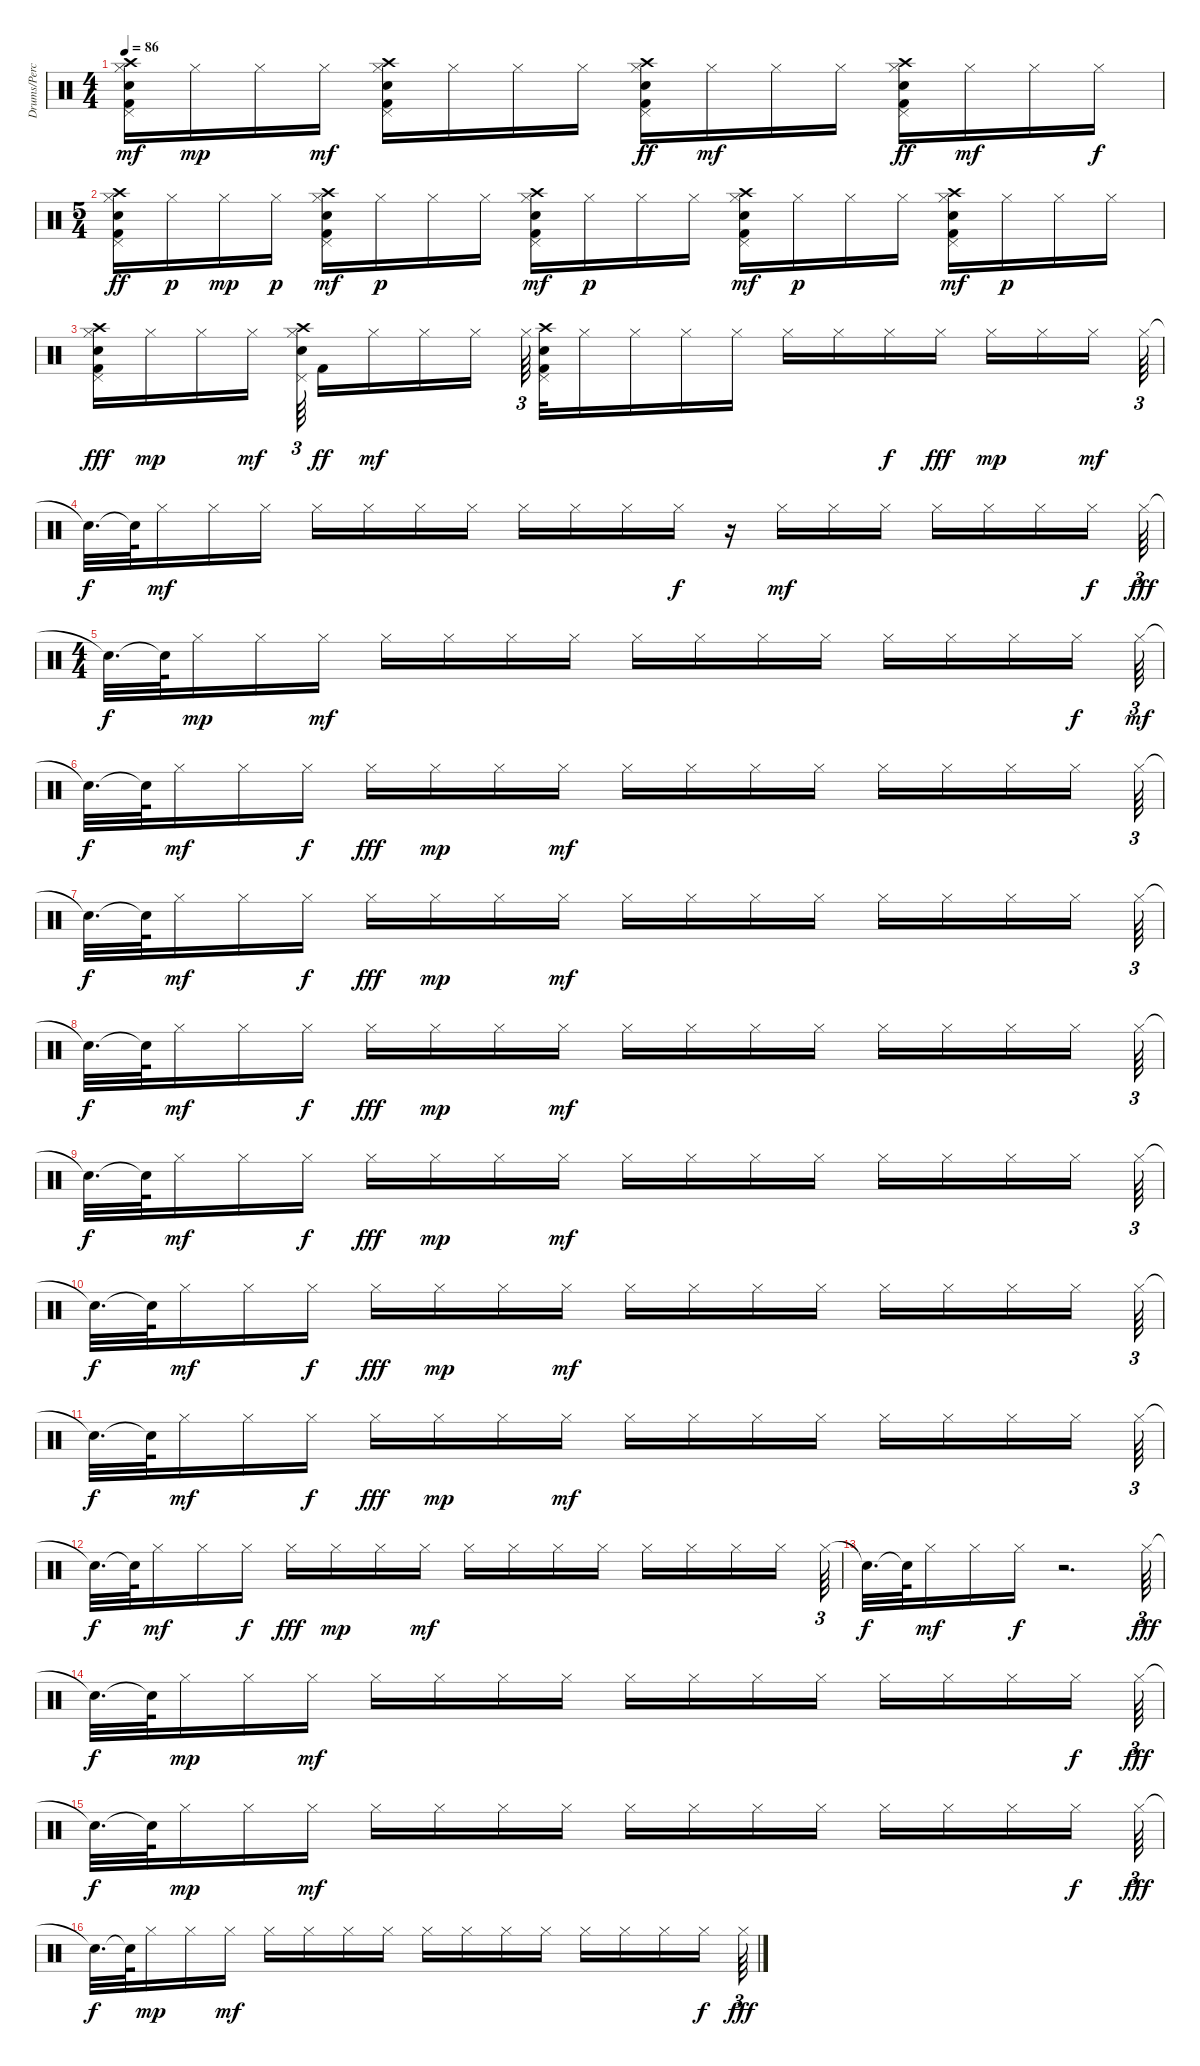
\track ("Drums/Percussion" "Drums/Perc") {instrument percussion}
\staff {score}
\articulation defaults
\ts (4 4)
\tempo 86
\clef neutral
\ks c
("Hi-Hat (closed)" "Crash high (hit)" "Pedal Hi-Hat (hit)" "Kick (hit) 2" "Electric Snare (hit)").16{dy mf} "Hi-Hat (closed)".16{dy mp} "Hi-Hat (closed)".16 "Hi-Hat (closed)".16{dy mf} ("Hi-Hat (closed)" "Pedal Hi-Hat (hit)" "Crash high (hit)" "Kick (hit) 2" "Electric Snare (hit)").16 "Hi-Hat (closed)".16 "Hi-Hat (closed)".16 "Hi-Hat (closed)".16 ("Hi-Hat (closed)" "Kick (hit) 2" "Electric Snare (hit)" "Crash high (hit)" "Pedal Hi-Hat (hit)").16{dy ff} "Hi-Hat (closed)".16{dy mf} "Hi-Hat (closed)".16 "Hi-Hat (closed)".16 ("Hi-Hat (closed)" "Electric Snare (hit)" "Kick (hit) 2" "Pedal Hi-Hat (hit)" "Crash high (hit)").16{dy ff} "Hi-Hat (closed)".16{dy mf} "Hi-Hat (closed)".16 "Hi-Hat (closed)".16{dy f} |
\ts (5 4)
("Hi-Hat (closed)" "Kick (hit) 2" "Electric Snare (hit)" "Crash high (hit)" "Pedal Hi-Hat (hit)").16{dy ff} "Hi-Hat (closed)".16{dy p} "Hi-Hat (closed)".16{dy mp} "Hi-Hat (closed)".16{dy p} ("Hi-Hat (closed)" "Pedal Hi-Hat (hit)" "Crash high (hit)" "Kick (hit) 2" "Electric Snare (hit)").16{dy mf} "Hi-Hat (closed)".16{dy p} "Hi-Hat (closed)".16 "Hi-Hat (closed)".16 ("Hi-Hat (closed)" "Pedal Hi-Hat (hit)" "Crash high (hit)" "Electric Snare (hit)" "Kick (hit) 2").16{dy mf} "Hi-Hat (closed)".16{dy p} "Hi-Hat (closed)".16 "Hi-Hat (closed)".16 ("Hi-Hat (closed)" "Crash high (hit)" "Pedal Hi-Hat (hit)" "Kick (hit) 2" "Electric Snare (hit)").16{dy mf} "Hi-Hat (closed)".16{dy p} "Hi-Hat (closed)".16 "Hi-Hat (closed)".16 ("Hi-Hat (closed)" "Pedal Hi-Hat (hit)" "Crash high (hit)" "Kick (hit) 2" "Electric Snare (hit)").16{dy mf} "Hi-Hat (closed)".16{dy p} "Hi-Hat (closed)".16 "Hi-Hat (closed)".16 |
("Hi-Hat (closed)" "Pedal Hi-Hat (hit)" "Crash high (hit)" "Kick (hit) 2" "Electric Snare (hit)").16{dy fff} "Hi-Hat (closed)".16{dy mp} "Hi-Hat (closed)".16 "Hi-Hat (closed)".16{dy mf} ("Hi-Hat (closed)" "Pedal Hi-Hat (hit)" "Crash high (hit)" "Electric Snare (hit)").64{tu (3 2) beam splitsecondary} "Kick (hit) 2".16{dy ff} "Hi-Hat (closed)".16{dy mf} "Hi-Hat (closed)".16 "Hi-Hat (closed)".16 "Hi-Hat (closed)".64{tu (3 2) beam splitsecondary} ("Crash high (hit)" "Pedal Hi-Hat (hit)" "Kick (hit) 2" "Electric Snare (hit)").32 "Hi-Hat (closed)".16{volume 10} "Hi-Hat (closed)".16 "Hi-Hat (closed)".16 "Hi-Hat (closed)".16{volume 9} "Hi-Hat (closed)".16{volume 8} "Hi-Hat (closed)".16{volume 8} "Hi-Hat (closed)".16{dy f volume 8} "Hi-Hat (closed)".16{dy fff volume 8} "Hi-Hat (closed)".16{dy mp volume 7} "Hi-Hat (closed)".16{volume 7} "Hi-Hat (closed)".16{dy mf volume 7 beam splitsecondary} "Hi-Hat (closed)".64{tu (3 2)} |
"Snare (hit)"{t}.32{d dy f} "Snare (hit)"{t}.64 "Hi-Hat (closed)".16{dy mf} "Hi-Hat (closed)".16 "Hi-Hat (closed)".16 "Hi-Hat (closed)".16 "Hi-Hat (closed)".16 "Hi-Hat (closed)".16 "Hi-Hat (closed)".16 "Hi-Hat (closed)".16 "Hi-Hat (closed)".16 "Hi-Hat (closed)".16 "Hi-Hat (closed)".16{dy f} r.16 "Hi-Hat (closed)".16{dy mf} "Hi-Hat (closed)".16 "Hi-Hat (closed)".16 "Hi-Hat (closed)".16 "Hi-Hat (closed)".16 "Hi-Hat (closed)".16 "Hi-Hat (closed)".16{dy f} "Hi-Hat (closed)".64{tu (3 2) dy fff} |
\ts (4 4)
"Snare (hit)"{t}.32{d dy f} "Snare (hit)"{t}.64 "Hi-Hat (closed)".16{dy mp} "Hi-Hat (closed)".16 "Hi-Hat (closed)".16{dy mf} "Hi-Hat (closed)".16 "Hi-Hat (closed)".16 "Hi-Hat (closed)".16 "Hi-Hat (closed)".16 "Hi-Hat (closed)".16 "Hi-Hat (closed)".16 "Hi-Hat (closed)".16 "Hi-Hat (closed)".16 "Hi-Hat (closed)".16 "Hi-Hat (closed)".16 "Hi-Hat (closed)".16 "Hi-Hat (closed)".16{dy f} "Hi-Hat (closed)".64{tu (3 2) dy mf} |
"Snare (hit)"{t}.32{d dy f} "Snare (hit)"{t}.64 "Hi-Hat (closed)".16{dy mf} "Hi-Hat (closed)".16 "Hi-Hat (closed)".16{dy f} "Hi-Hat (closed)".16{dy fff} "Hi-Hat (closed)".16{dy mp} "Hi-Hat (closed)".16 "Hi-Hat (closed)".16{dy mf} "Hi-Hat (closed)".16 "Hi-Hat (closed)".16 "Hi-Hat (closed)".16 "Hi-Hat (closed)".16 "Hi-Hat (closed)".16 "Hi-Hat (closed)".16 "Hi-Hat (closed)".16 "Hi-Hat (closed)".16 "Hi-Hat (closed)".64{tu (3 2)} |
"Snare (hit)"{t}.32{d dy f} "Snare (hit)"{t}.64 "Hi-Hat (closed)".16{dy mf} "Hi-Hat (closed)".16 "Hi-Hat (closed)".16{dy f} "Hi-Hat (closed)".16{dy fff} "Hi-Hat (closed)".16{dy mp} "Hi-Hat (closed)".16 "Hi-Hat (closed)".16{dy mf} "Hi-Hat (closed)".16 "Hi-Hat (closed)".16 "Hi-Hat (closed)".16 "Hi-Hat (closed)".16 "Hi-Hat (closed)".16 "Hi-Hat (closed)".16{volume 8} "Hi-Hat (closed)".16{volume 8} "Hi-Hat (closed)".16 "Hi-Hat (closed)".64{tu (3 2)} |
"Snare (hit)"{t}.32{d dy f} "Snare (hit)"{t}.64 "Hi-Hat (closed)".16{dy mf} "Hi-Hat (closed)".16 "Hi-Hat (closed)".16{dy f} "Hi-Hat (closed)".16{dy fff} "Hi-Hat (closed)".16{dy mp} "Hi-Hat (closed)".16 "Hi-Hat (closed)".16{dy mf} "Hi-Hat (closed)".16 "Hi-Hat (closed)".16 "Hi-Hat (closed)".16 "Hi-Hat (closed)".16 "Hi-Hat (closed)".16 "Hi-Hat (closed)".16 "Hi-Hat (closed)".16 "Hi-Hat (closed)".16 "Hi-Hat (closed)".64{tu (3 2)} |
"Snare (hit)"{t}.32{d dy f} "Snare (hit)"{t}.64 "Hi-Hat (closed)".16{dy mf} "Hi-Hat (closed)".16 "Hi-Hat (closed)".16{dy f} "Hi-Hat (closed)".16{dy fff} "Hi-Hat (closed)".16{dy mp} "Hi-Hat (closed)".16 "Hi-Hat (closed)".16{dy mf} "Hi-Hat (closed)".16 "Hi-Hat (closed)".16 "Hi-Hat (closed)".16 "Hi-Hat (closed)".16 "Hi-Hat (closed)".16 "Hi-Hat (closed)".16 "Hi-Hat (closed)".16 "Hi-Hat (closed)".16 "Hi-Hat (closed)".64{tu (3 2)} |
"Snare (hit)"{t}.32{d dy f} "Snare (hit)"{t}.64 "Hi-Hat (closed)".16{dy mf} "Hi-Hat (closed)".16 "Hi-Hat (closed)".16{dy f} "Hi-Hat (closed)".16{dy fff} "Hi-Hat (closed)".16{dy mp} "Hi-Hat (closed)".16 "Hi-Hat (closed)".16{dy mf} "Hi-Hat (closed)".16 "Hi-Hat (closed)".16 "Hi-Hat (closed)".16 "Hi-Hat (closed)".16 "Hi-Hat (closed)".16 "Hi-Hat (closed)".16 "Hi-Hat (closed)".16 "Hi-Hat (closed)".16 "Hi-Hat (closed)".64{tu (3 2)} |
"Snare (hit)"{t}.32{d dy f} "Snare (hit)"{t}.64 "Hi-Hat (closed)".16{dy mf} "Hi-Hat (closed)".16 "Hi-Hat (closed)".16{dy f} "Hi-Hat (closed)".16{dy fff} "Hi-Hat (closed)".16{dy mp} "Hi-Hat (closed)".16 "Hi-Hat (closed)".16{dy mf} "Hi-Hat (closed)".16 "Hi-Hat (closed)".16 "Hi-Hat (closed)".16 "Hi-Hat (closed)".16 "Hi-Hat (closed)".16 "Hi-Hat (closed)".16 "Hi-Hat (closed)".16 "Hi-Hat (closed)".16 "Hi-Hat (closed)".64{tu (3 2)} |
"Snare (hit)"{t}.32{d dy f} "Snare (hit)"{t}.64 "Hi-Hat (closed)".16{dy mf} "Hi-Hat (closed)".16 "Hi-Hat (closed)".16{dy f} "Hi-Hat (closed)".16{dy fff} "Hi-Hat (closed)".16{dy mp} "Hi-Hat (closed)".16 "Hi-Hat (closed)".16{dy mf} "Hi-Hat (closed)".16 "Hi-Hat (closed)".16 "Hi-Hat (closed)".16 "Hi-Hat (closed)".16 "Hi-Hat (closed)".16 "Hi-Hat (closed)".16 "Hi-Hat (closed)".16 "Hi-Hat (closed)".16 "Hi-Hat (closed)".64{tu (3 2)} |
"Snare (hit)"{t}.32{d dy f} "Snare (hit)"{t}.64 "Hi-Hat (closed)".16{dy mf} "Hi-Hat (closed)".16 "Hi-Hat (closed)".16{dy f} r.2{d} "Hi-Hat (closed)".64{tu (3 2) dy fff} |
"Snare (hit)"{t}.32{d dy f} "Snare (hit)"{t}.64 "Hi-Hat (closed)".16{dy mp} "Hi-Hat (closed)".16 "Hi-Hat (closed)".16{dy mf} "Hi-Hat (closed)".16 "Hi-Hat (closed)".16 "Hi-Hat (closed)".16 "Hi-Hat (closed)".16 "Hi-Hat (closed)".16 "Hi-Hat (closed)".16 "Hi-Hat (closed)".16 "Hi-Hat (closed)".16 "Hi-Hat (closed)".16 "Hi-Hat (closed)".16 "Hi-Hat (closed)".16 "Hi-Hat (closed)".16{dy f} "Hi-Hat (closed)".64{tu (3 2) dy fff} |
"Snare (hit)"{t}.32{d dy f} "Snare (hit)"{t}.64 "Hi-Hat (closed)".16{dy mp} "Hi-Hat (closed)".16 "Hi-Hat (closed)".16{dy mf} "Hi-Hat (closed)".16 "Hi-Hat (closed)".16 "Hi-Hat (closed)".16 "Hi-Hat (closed)".16 "Hi-Hat (closed)".16 "Hi-Hat (closed)".16 "Hi-Hat (closed)".16 "Hi-Hat (closed)".16 "Hi-Hat (closed)".16 "Hi-Hat (closed)".16 "Hi-Hat (closed)".16 "Hi-Hat (closed)".16{dy f} "Hi-Hat (closed)".64{tu (3 2) dy fff} |
"Snare (hit)"{t}.32{d dy f} "Snare (hit)"{t}.64 "Hi-Hat (closed)".16{dy mp} "Hi-Hat (closed)".16 "Hi-Hat (closed)".16{dy mf} "Hi-Hat (closed)".16 "Hi-Hat (closed)".16 "Hi-Hat (closed)".16 "Hi-Hat (closed)".16 "Hi-Hat (closed)".16 "Hi-Hat (closed)".16 "Hi-Hat (closed)".16 "Hi-Hat (closed)".16 "Hi-Hat (closed)".16 "Hi-Hat (closed)".16 "Hi-Hat (closed)".16 "Hi-Hat (closed)".16{dy f} "Hi-Hat (closed)".64{tu (3 2) dy fff}
